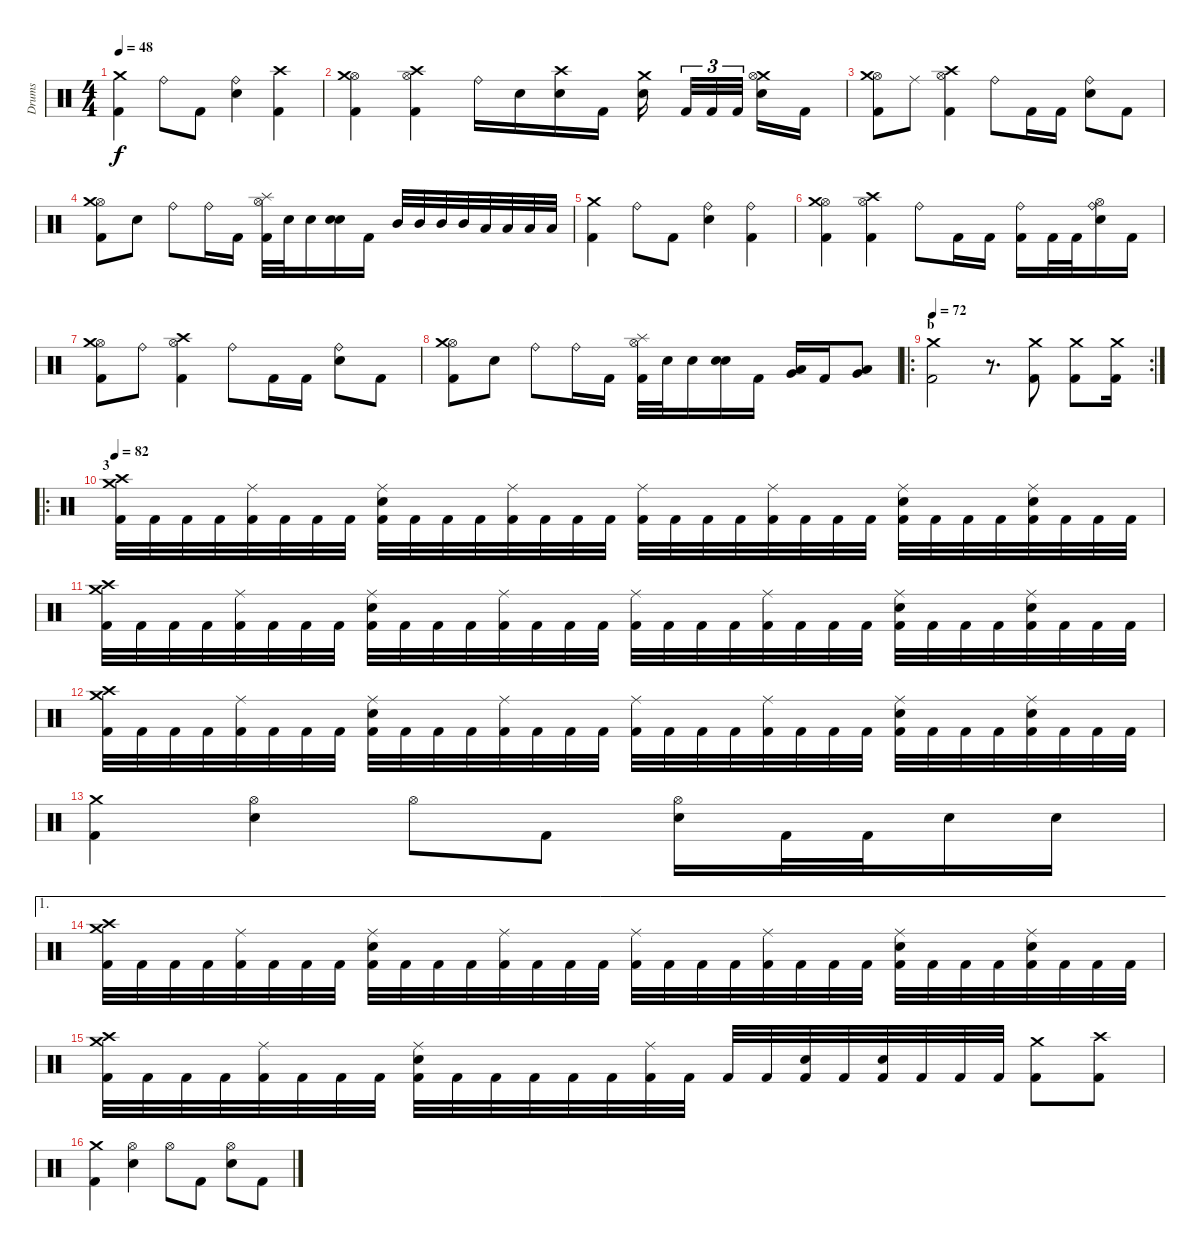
\track ("Drums" "Drums") {instrument percussion}
\staff {score}
\articulation defaults
\ts (4 4)
\tempo 48
\clef neutral
\ks c
("Crash medium (hit)" "Kick (hit) 2").4{dy f} "Ride (bell)".8 "Kick (hit) 2".8 ("Ride (bell)" "Electric Snare (hit)").4 ("Crash high (hit)" "Kick (hit) 2").4 |
("Hi-Hat (open)" "Crash medium (hit)" "Kick (hit) 2").4 ("Hi-Hat (open)" "Crash high (hit)" "Kick (hit) 2").4 "Ride (bell)".16 "Electric Snare (hit)".16 ("Crash high (hit)" "Electric Snare (hit)").16 "Kick (hit) 2".16 ("Crash medium (hit)" "Electric Snare (hit)").16 "Kick (hit) 2".32{tu (3 2)} "Kick (hit) 2".32{tu (3 2)} "Kick (hit) 2".32{tu (3 2)} ("Crash medium (hit)" "Hi-Hat (open)" "Electric Snare (hit)").16 "Kick (hit) 2".16 |
("Hi-Hat (open)" "Crash medium (hit)" "Kick (hit) 2").8 "Ride (middle)".8 ("Hi-Hat (open)" "Crash high (hit)" "Kick (hit) 2").4 "Ride (bell)".8 "Kick (hit) 2".16 "Kick (hit) 2".16 ("Ride (bell)" "Electric Snare (hit)").8 "Kick (hit) 2".8 |
("Hi-Hat (open)" "Crash medium (hit)" "Kick (hit) 2").8 "Electric Snare (hit)".8 "Ride (bell)".8 "Ride (bell)".16 "Kick (hit) 2".16 ("Hi-Hat (open)" "Splash (hit)" "Kick (hit) 2").32 "Electric Snare (hit)".32 "Electric Snare (hit)".16 ("Electric Snare (hit)" "Electric Snare (hit)").16{bu 30} "Kick (hit) 2".16 "Mid Tom (hit)".32 "Mid Tom (hit)".32 "Mid Tom (hit)".32 "Mid Tom (hit)".32 "Low Tom (hit)".32 "Low Tom (hit)".32 "Low Tom (hit)".32 "Low Tom (hit)".32 |
("Crash medium (hit)" "Kick (hit) 2").4 "Ride (bell)".8 "Kick (hit) 2".8 ("Ride (bell)" "Electric Snare (hit)").4 ("Ride (bell)" "Kick (hit) 2").4 |
("Hi-Hat (open)" "Crash medium (hit)" "Kick (hit) 2").4 ("Hi-Hat (open)" "Crash high (hit)" "Kick (hit) 2").4 "Ride (bell)".8 "Kick (hit) 2".16 "Kick (hit) 2".16 ("Ride (bell)" "Kick (hit) 2").16 "Kick (hit) 2".32 "Kick (hit) 2".32 ("Ride (bell)" "Hi-Hat (open)" "Electric Snare (hit)").16 "Kick (hit) 2".16 |
("Hi-Hat (open)" "Crash medium (hit)" "Kick (hit) 2").8 "Ride (bell)".8 ("Hi-Hat (open)" "Crash high (hit)" "Kick (hit) 2").4 "Ride (bell)".8 "Kick (hit) 2".16 "Kick (hit) 2".16 ("Ride (bell)" "Electric Snare (hit)").8 "Kick (hit) 2".8 |
("Hi-Hat (open)" "Crash medium (hit)" "Kick (hit) 2").8 "Electric Snare (hit)".8 "Ride (bell)".8 "Ride (bell)".16 "Kick (hit) 2".16 ("Hi-Hat (open)" "Splash (hit)" "Kick (hit) 2").32 "Electric Snare (hit)".32 "Electric Snare (hit)".16 ("Electric Snare (hit)" "Electric Snare (hit)").16{bu 30} "Kick (hit) 2".16 ("Low Tom (hit)" "Very Low Tom (hit)").16 "Kick (hit) 2".16 ("Very Low Tom (hit)" "Low Floor Tom (hit)").8 |
\ro
\rc 2
\section ("" "b")
\tempo 72
("Crash medium (hit)" "Kick (hit) 2").2 r.8{d} ("Crash medium (hit)" "Kick (hit) 2").8 ("Crash medium (hit)" "Kick (hit) 2").8 ("Crash medium (hit)" "Kick (hit) 2").16 |
\ro
\section ("" "3")
\tempo 82
("Crash medium (hit)" "Crash high (hit)" "Kick (hit) 2").32 "Kick (hit) 2".32 "Kick (hit) 2".32 "Kick (hit) 2".32 ("Ride (middle)" "Kick (hit) 2").32 "Kick (hit) 2".32 "Kick (hit) 2".32 "Kick (hit) 2".32 ("Ride (middle)" "Electric Snare (hit)" "Kick (hit) 2").32 "Kick (hit) 2".32 "Kick (hit) 2".32 "Kick (hit) 2".32 ("Ride (middle)" "Kick (hit) 2").32 "Kick (hit) 2".32 "Kick (hit) 2".32 "Kick (hit) 2".32 ("Ride (middle)" "Kick (hit) 2").32 "Kick (hit) 2".32 "Kick (hit) 2".32 "Kick (hit) 2".32 ("Ride (middle)" "Kick (hit) 2").32 "Kick (hit) 2".32 "Kick (hit) 2".32 "Kick (hit) 2".32 ("Ride (middle)" "Electric Snare (hit)" "Kick (hit) 2").32 "Kick (hit) 2".32 "Kick (hit) 2".32 "Kick (hit) 2".32 ("Ride (middle)" "Electric Snare (hit)" "Kick (hit) 2").32 "Kick (hit) 2".32 "Kick (hit) 2".32 "Kick (hit) 2".32 |
("Crash medium (hit)" "Crash high (hit)" "Kick (hit) 2").32 "Kick (hit) 2".32 "Kick (hit) 2".32 "Kick (hit) 2".32 ("Ride (middle)" "Kick (hit) 2").32 "Kick (hit) 2".32 "Kick (hit) 2".32 "Kick (hit) 2".32 ("Ride (middle)" "Electric Snare (hit)" "Kick (hit) 2").32 "Kick (hit) 2".32 "Kick (hit) 2".32 "Kick (hit) 2".32 ("Ride (middle)" "Kick (hit) 2").32 "Kick (hit) 2".32 "Kick (hit) 2".32 "Kick (hit) 2".32 ("Ride (middle)" "Kick (hit) 2").32 "Kick (hit) 2".32 "Kick (hit) 2".32 "Kick (hit) 2".32 ("Ride (middle)" "Kick (hit) 2").32 "Kick (hit) 2".32 "Kick (hit) 2".32 "Kick (hit) 2".32 ("Ride (middle)" "Electric Snare (hit)" "Kick (hit) 2").32 "Kick (hit) 2".32 "Kick (hit) 2".32 "Kick (hit) 2".32 ("Ride (middle)" "Electric Snare (hit)" "Kick (hit) 2").32 "Kick (hit) 2".32 "Kick (hit) 2".32 "Kick (hit) 2".32 |
("Crash medium (hit)" "Crash high (hit)" "Kick (hit) 2").32 "Kick (hit) 2".32 "Kick (hit) 2".32 "Kick (hit) 2".32 ("Ride (middle)" "Kick (hit) 2").32 "Kick (hit) 2".32 "Kick (hit) 2".32 "Kick (hit) 2".32 ("Ride (middle)" "Electric Snare (hit)" "Kick (hit) 2").32 "Kick (hit) 2".32 "Kick (hit) 2".32 "Kick (hit) 2".32 ("Ride (middle)" "Kick (hit) 2").32 "Kick (hit) 2".32 "Kick (hit) 2".32 "Kick (hit) 2".32 ("Ride (middle)" "Kick (hit) 2").32 "Kick (hit) 2".32 "Kick (hit) 2".32 "Kick (hit) 2".32 ("Ride (middle)" "Kick (hit) 2").32 "Kick (hit) 2".32 "Kick (hit) 2".32 "Kick (hit) 2".32 ("Ride (middle)" "Electric Snare (hit)" "Kick (hit) 2").32 "Kick (hit) 2".32 "Kick (hit) 2".32 "Kick (hit) 2".32 ("Ride (middle)" "Electric Snare (hit)" "Kick (hit) 2").32 "Kick (hit) 2".32 "Kick (hit) 2".32 "Kick (hit) 2".32 |
("Crash medium (hit)" "Kick (hit) 2").4 ("Electric Snare (hit)" "Hi-Hat (open)").4 "Hi-Hat (open)".8 "Kick (hit) 2".8 ("Electric Snare (hit)" "Hi-Hat (open)").16 "Kick (hit) 2".32 "Kick (hit) 2".32 "Electric Snare (hit)".16 "Electric Snare (hit)".16 |
\ae 1
("Crash medium (hit)" "Crash high (hit)" "Kick (hit) 2").32 "Kick (hit) 2".32 "Kick (hit) 2".32 "Kick (hit) 2".32 ("Ride (middle)" "Kick (hit) 2").32 "Kick (hit) 2".32 "Kick (hit) 2".32 "Kick (hit) 2".32 ("Ride (middle)" "Electric Snare (hit)" "Kick (hit) 2").32 "Kick (hit) 2".32 "Kick (hit) 2".32 "Kick (hit) 2".32 ("Ride (middle)" "Kick (hit) 2").32 "Kick (hit) 2".32 "Kick (hit) 2".32 "Kick (hit) 2".32 ("Ride (middle)" "Kick (hit) 2").32 "Kick (hit) 2".32 "Kick (hit) 2".32 "Kick (hit) 2".32 ("Ride (middle)" "Kick (hit) 2").32 "Kick (hit) 2".32 "Kick (hit) 2".32 "Kick (hit) 2".32 ("Ride (middle)" "Electric Snare (hit)" "Kick (hit) 2").32 "Kick (hit) 2".32 "Kick (hit) 2".32 "Kick (hit) 2".32 ("Ride (middle)" "Electric Snare (hit)" "Kick (hit) 2").32 "Kick (hit) 2".32 "Kick (hit) 2".32 "Kick (hit) 2".32 |
("Crash medium (hit)" "Crash high (hit)" "Kick (hit) 2").32 "Kick (hit) 2".32 "Kick (hit) 2".32 "Kick (hit) 2".32 ("Ride (middle)" "Kick (hit) 2").32 "Kick (hit) 2".32 "Kick (hit) 2".32 "Kick (hit) 2".32 ("Ride (middle)" "Electric Snare (hit)" "Kick (hit) 2").32 "Kick (hit) 2".32 "Kick (hit) 2".32 "Kick (hit) 2".32 "Kick (hit) 2".32 "Kick (hit) 2".32 ("Ride (middle)" "Kick (hit) 2").32 "Kick (hit) 2".32 "Kick (hit) 2".32 "Kick (hit) 2".32 ("Electric Snare (hit)" "Kick (hit) 2").32 "Kick (hit) 2".32 ("Electric Snare (hit)" "Kick (hit) 2").32 "Kick (hit) 2".32 "Kick (hit) 2".32 "Kick (hit) 2".32 ("Crash medium (hit)" "Kick (hit) 2").8 ("Crash high (hit)" "Kick (hit) 2").8 |
("Crash medium (hit)" "Kick (hit) 2").4 ("Hi-Hat (open)" "Electric Snare (hit)").4 "Hi-Hat (open)".8 "Kick (hit) 2".8 ("Hi-Hat (open)" "Electric Snare (hit)").8 "Kick (hit) 2".8
